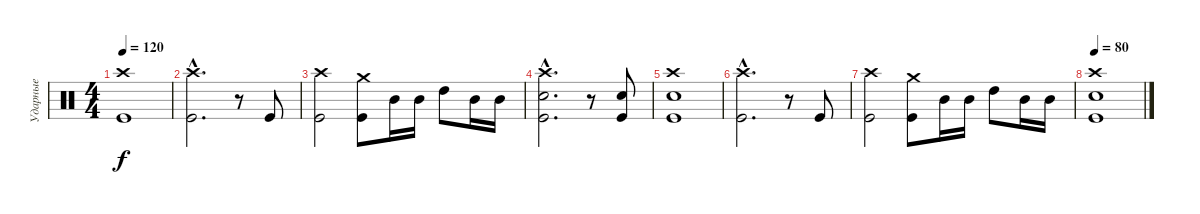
\track ("Ударные" "Ударные") {instrument percussion}
\staff {score}
\articulation defaults
\ts (4 4)
\tempo 120
\clef neutral
\ks c
("Crash high (hit)" "Kick (hit)").1{dy f} |
("Kick (hit)"{hac} "Crash high (hit)"{hac}).2{d} r.8 "Kick (hit)".8 |
("Crash high (hit)" "Kick (hit)").2 ("Crash medium (hit)" "Kick (hit)").8 "Mid Tom (hit)".16 "Mid Tom (hit)".16 "High Tom (hit)".8 "Mid Tom (hit)".16 "Mid Tom (hit)".16 |
("Kick (hit)"{hac} "Electric Snare (hit)"{hac} "Crash high (hit)"{hac}).2{d} r.8 ("Electric Snare (hit)" "Kick (hit)").8 |
("Crash high (hit)" "Electric Snare (hit)" "Kick (hit)").1 |
("Kick (hit)"{hac} "Crash high (hit)"{hac}).2{d} r.8 "Kick (hit)".8 |
("Crash high (hit)" "Kick (hit)").2 ("Crash medium (hit)" "Kick (hit)").8 "Mid Tom (hit)".16 "Mid Tom (hit)".16 "High Tom (hit)".8 "Mid Tom (hit)".16 "Mid Tom (hit)".16 |
\tempo 80
("Crash high (hit)" "Electric Snare (hit)" "Kick (hit)").1
